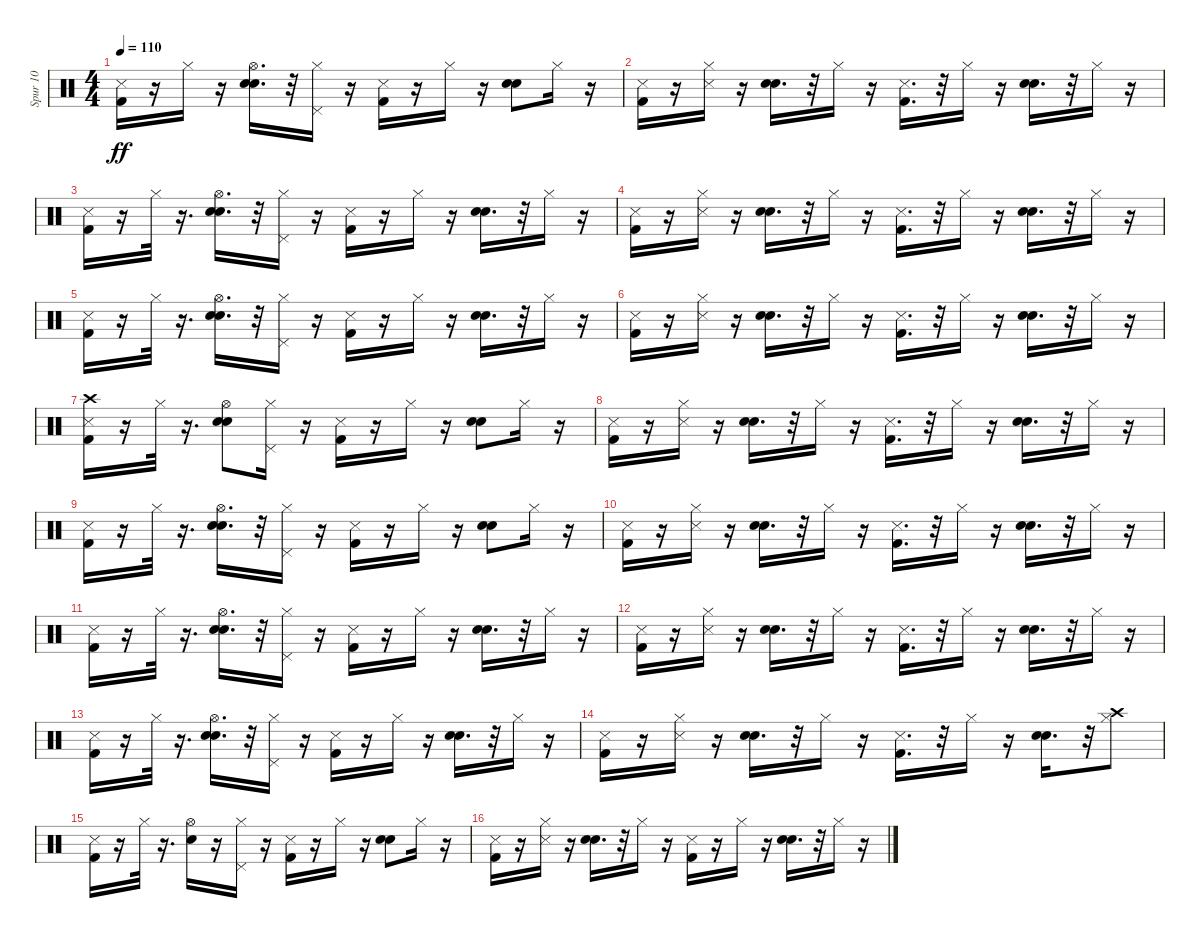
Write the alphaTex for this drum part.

\track ("Spur 10" "Spur 10") {instrument percussion}
\staff {score}
\articulation defaults
\ts (4 4)
\tempo 110
\clef neutral
\ks c
("Kick (hit) 2" "Snare (side stick) 3").16{dy ff} r.16 "Hi-Hat (closed)".16 r.16 ("Hand Clap (hit)" "Electric Snare (hit)" "Hi-Hat (open)").16{d} r.32 ("Hi-Hat (closed)" "Pedal Hi-Hat (hit)").16 r.16 ("Kick (hit) 2" "Snare (side stick) 3").16 r.16 "Hi-Hat (closed)".16 r.16 ("Hand Clap (hit)" "Electric Snare (hit)").8 "Hi-Hat (closed)".16 r.16 |
("Kick (hit) 2" "Snare (side stick) 3").16 r.16 ("Snare (side stick) 3" "Hi-Hat (closed)").16 r.16 ("Hand Clap (hit)" "Electric Snare (hit)").16{d} r.32 "Hi-Hat (closed)".16 r.16 ("Kick (hit) 2" "Snare (side stick) 3").16{d} r.32 "Hi-Hat (closed)".16 r.16 ("Electric Snare (hit)" "Hand Clap (hit)").16{d} r.32 "Hi-Hat (closed)".16 r.16 |
("Kick (hit) 2" "Snare (side stick) 3").16 r.16 "Hi-Hat (closed)".32 r.16{d} ("Hand Clap (hit)" "Electric Snare (hit)" "Hi-Hat (open)").16{d} r.32 ("Hi-Hat (closed)" "Pedal Hi-Hat (hit)").16 r.16 ("Kick (hit) 2" "Snare (side stick) 3").16 r.16 "Hi-Hat (closed)".16 r.16 ("Hand Clap (hit)" "Electric Snare (hit)").16{d} r.32 "Hi-Hat (closed)".16 r.16 |
("Kick (hit) 2" "Snare (side stick) 3").16 r.16 ("Snare (side stick) 3" "Hi-Hat (closed)").16 r.16 ("Hand Clap (hit)" "Electric Snare (hit)").16{d} r.32 "Hi-Hat (closed)".16 r.16 ("Kick (hit) 2" "Snare (side stick) 3").16{d} r.32 "Hi-Hat (closed)".16 r.16 ("Hand Clap (hit)" "Electric Snare (hit)").16{d} r.32 "Hi-Hat (closed)".16 r.16 |
("Kick (hit) 2" "Snare (side stick) 3").16 r.16 "Hi-Hat (closed)".32 r.16{d} ("Hand Clap (hit)" "Electric Snare (hit)" "Hi-Hat (open)").16{d} r.32 ("Hi-Hat (closed)" "Pedal Hi-Hat (hit)").16 r.16 ("Kick (hit) 2" "Snare (side stick) 3").16 r.16 "Hi-Hat (closed)".16 r.16 ("Hand Clap (hit)" "Electric Snare (hit)").16{d} r.32 "Hi-Hat (closed)".16 r.16 |
("Kick (hit) 2" "Snare (side stick) 3").16 r.16 ("Snare (side stick) 3" "Hi-Hat (closed)").16 r.16 ("Hand Clap (hit)" "Electric Snare (hit)").16{d} r.32 "Hi-Hat (closed)".16 r.16 ("Kick (hit) 2" "Snare (side stick) 3").16{d} r.32 "Hi-Hat (closed)".16 r.16 ("Hand Clap (hit)" "Electric Snare (hit)").16{d} r.32 "Hi-Hat (closed)".16 r.16 |
("Kick (hit) 2" "Snare (side stick) 3" "Crash high (hit)").16 r.16 "Hi-Hat (closed)".32 r.16{d} ("Hand Clap (hit)" "Electric Snare (hit)" "Hi-Hat (open)").8 ("Hi-Hat (closed)" "Pedal Hi-Hat (hit)").16 r.16 ("Kick (hit) 2" "Snare (side stick) 3").16 r.16 "Hi-Hat (closed)".16 r.16 ("Electric Snare (hit)" "Hand Clap (hit)").8 "Hi-Hat (closed)".16 r.16 |
("Kick (hit) 2" "Snare (side stick) 3").16 r.16 ("Snare (side stick) 3" "Hi-Hat (closed)").16 r.16 ("Hand Clap (hit)" "Electric Snare (hit)").16{d} r.32 "Hi-Hat (closed)".16 r.16 ("Kick (hit) 2" "Snare (side stick) 3").16{d} r.32 "Hi-Hat (closed)".16 r.16 ("Hand Clap (hit)" "Electric Snare (hit)").16{d} r.32 "Hi-Hat (closed)".16 r.16 |
("Kick (hit) 2" "Snare (side stick) 3").16 r.16 "Hi-Hat (closed)".32 r.16{d} ("Hand Clap (hit)" "Electric Snare (hit)" "Hi-Hat (open)").16{d} r.32 ("Hi-Hat (closed)" "Pedal Hi-Hat (hit)").16 r.16 ("Kick (hit) 2" "Snare (side stick) 3").16 r.16 "Hi-Hat (closed)".16 r.16 ("Hand Clap (hit)" "Electric Snare (hit)").8 "Hi-Hat (closed)".16 r.16 |
("Kick (hit) 2" "Snare (side stick) 3").16 r.16 ("Snare (side stick) 3" "Hi-Hat (closed)").16 r.16 ("Hand Clap (hit)" "Electric Snare (hit)").16{d} r.32 "Hi-Hat (closed)".16 r.16 ("Kick (hit) 2" "Snare (side stick) 3").16{d} r.32 "Hi-Hat (closed)".16 r.16 ("Electric Snare (hit)" "Hand Clap (hit)").16{d} r.32 "Hi-Hat (closed)".16 r.16 |
("Kick (hit) 2" "Snare (side stick) 3").16 r.16 "Hi-Hat (closed)".32 r.16{d} ("Hand Clap (hit)" "Electric Snare (hit)" "Hi-Hat (open)").16{d} r.32 ("Hi-Hat (closed)" "Pedal Hi-Hat (hit)").16 r.16 ("Kick (hit) 2" "Snare (side stick) 3").16 r.16 "Hi-Hat (closed)".16 r.16 ("Hand Clap (hit)" "Electric Snare (hit)").16{d} r.32 "Hi-Hat (closed)".16 r.16 |
("Kick (hit) 2" "Snare (side stick) 3").16 r.16 ("Snare (side stick) 3" "Hi-Hat (closed)").16 r.16 ("Hand Clap (hit)" "Electric Snare (hit)").16{d} r.32 "Hi-Hat (closed)".16 r.16 ("Kick (hit) 2" "Snare (side stick) 3").16{d} r.32 "Hi-Hat (closed)".16 r.16 ("Electric Snare (hit)" "Hand Clap (hit)").16{d} r.32 "Hi-Hat (closed)".16 r.16 |
("Kick (hit) 2" "Snare (side stick) 3").16 r.16 "Hi-Hat (closed)".32 r.16{d} ("Hand Clap (hit)" "Electric Snare (hit)" "Hi-Hat (open)").16{d} r.32 ("Hi-Hat (closed)" "Pedal Hi-Hat (hit)").16 r.16 ("Kick (hit) 2" "Snare (side stick) 3").16 r.16 "Hi-Hat (closed)".16 r.16 ("Hand Clap (hit)" "Electric Snare (hit)").16{d} r.32 "Hi-Hat (closed)".16 r.16 |
("Kick (hit) 2" "Snare (side stick) 3").16 r.16 ("Snare (side stick) 3" "Hi-Hat (closed)").16 r.16 ("Hand Clap (hit)" "Electric Snare (hit)").16{d} r.32 "Hi-Hat (closed)".16 r.16 ("Kick (hit) 2" "Snare (side stick) 3").16{d} r.32 "Hi-Hat (closed)".16 r.16 ("Hand Clap (hit)" "Electric Snare (hit)").16{d} r.32 ("Hi-Hat (closed)" "Crash high (hit)").8 |
("Kick (hit) 2" "Snare (side stick) 3").16 r.16 "Hi-Hat (closed)".32 r.16{d} ("Electric Snare (hit)" "Hi-Hat (open)").16 r.16 ("Hi-Hat (closed)" "Pedal Hi-Hat (hit)").16 r.16 ("Kick (hit) 2" "Snare (side stick) 3").16 r.16 "Hi-Hat (closed)".16 r.16 ("Electric Snare (hit)" "Hand Clap (hit)").8 "Hi-Hat (closed)".16 r.16 |
("Kick (hit) 2" "Snare (side stick) 3").16 r.16 ("Snare (side stick) 3" "Hi-Hat (closed)").16 r.16 ("Hand Clap (hit)" "Electric Snare (hit)").16{d} r.32 "Hi-Hat (closed)".16 r.16 ("Kick (hit) 2" "Snare (side stick) 3").16 r.16 "Hi-Hat (closed)".16 r.16 ("Hand Clap (hit)" "Electric Snare (hit)").16{d} r.32 "Hi-Hat (closed)".16 r.16
